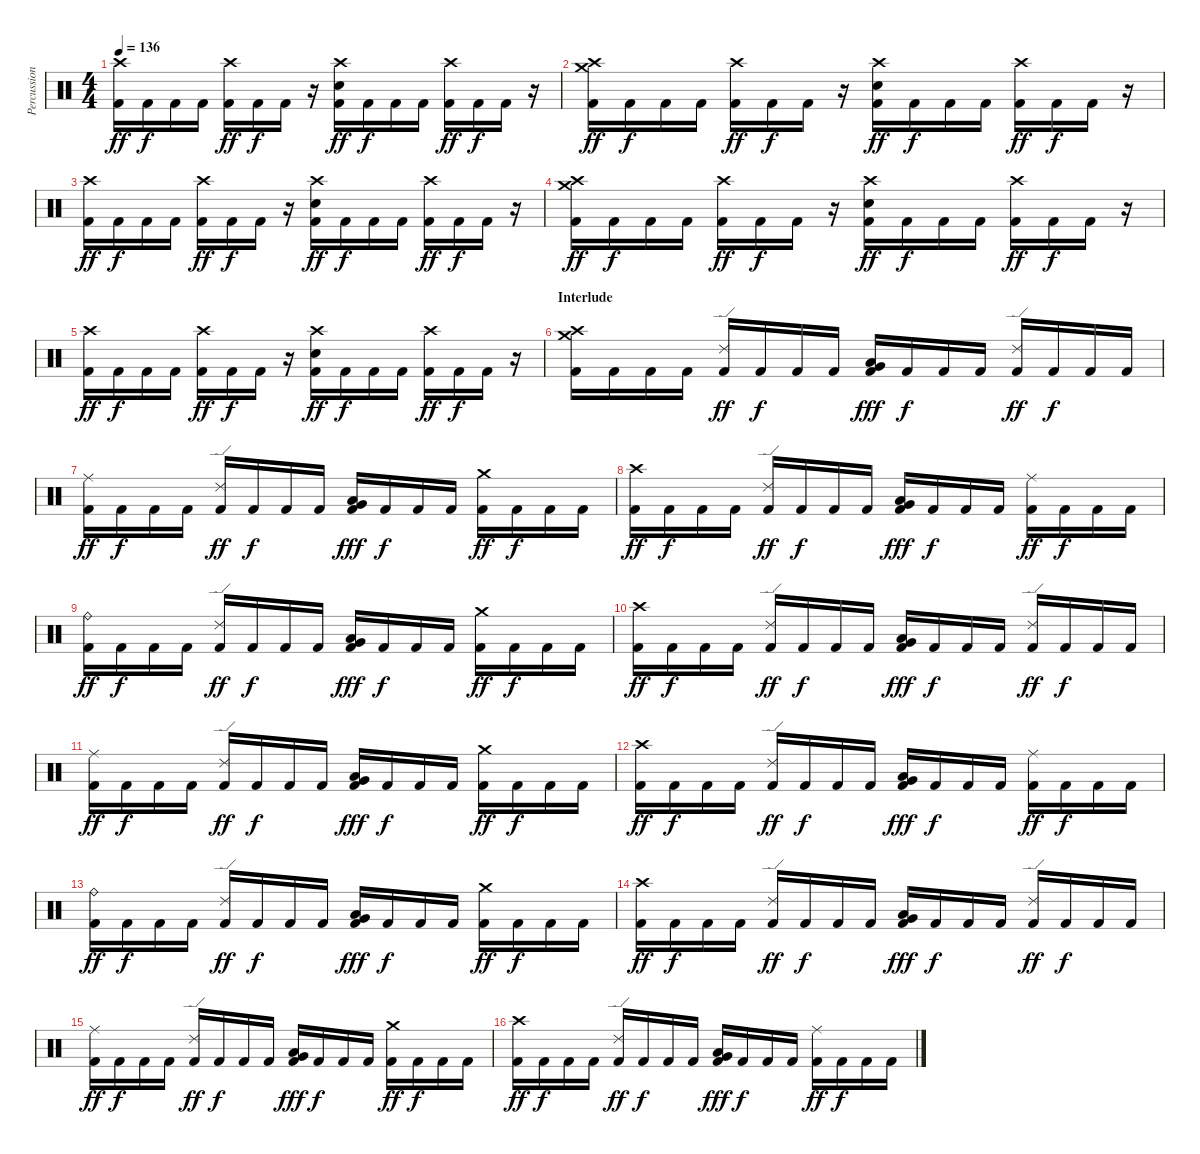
\track ("Percussions" "Percussion") {instrument percussion}
\staff {score}
\articulation defaults
\ts (4 4)
\tempo 136
\clef neutral
\ks c
("Crash high (hit)" "Kick (hit) 2").16{dy ff} "Kick (hit) 2".16{dy f} "Kick (hit) 2".16 "Kick (hit) 2".16 ("Crash high (hit)" "Kick (hit) 2").16{dy ff} "Kick (hit) 2".16{dy f} "Kick (hit) 2".16 r.16 ("Crash high (hit)" "Electric Snare (hit)" "Kick (hit) 2").16{dy ff} "Kick (hit) 2".16{dy f} "Kick (hit) 2".16 "Kick (hit) 2".16 ("Crash high (hit)" "Kick (hit) 2").16{dy ff} "Kick (hit) 2".16{dy f} "Kick (hit) 2".16 r.16 |
("Crash medium (hit)" "Crash high (hit)" "Kick (hit) 2").16{dy ff} "Kick (hit) 2".16{dy f} "Kick (hit) 2".16 "Kick (hit) 2".16 ("Crash high (hit)" "Kick (hit) 2").16{dy ff} "Kick (hit) 2".16{dy f} "Kick (hit) 2".16 r.16 ("Crash high (hit)" "Electric Snare (hit)" "Kick (hit) 2").16{dy ff} "Kick (hit) 2".16{dy f} "Kick (hit) 2".16 "Kick (hit) 2".16 ("Crash high (hit)" "Kick (hit) 2").16{dy ff} "Kick (hit) 2".16{dy f} "Kick (hit) 2".16 r.16 |
("Crash high (hit)" "Kick (hit) 2").16{dy ff} "Kick (hit) 2".16{dy f} "Kick (hit) 2".16 "Kick (hit) 2".16 ("Crash high (hit)" "Kick (hit) 2").16{dy ff} "Kick (hit) 2".16{dy f} "Kick (hit) 2".16 r.16 ("Crash high (hit)" "Electric Snare (hit)" "Kick (hit) 2").16{dy ff} "Kick (hit) 2".16{dy f} "Kick (hit) 2".16 "Kick (hit) 2".16 ("Crash high (hit)" "Kick (hit) 2").16{dy ff} "Kick (hit) 2".16{dy f} "Kick (hit) 2".16 r.16 |
("Crash medium (hit)" "Crash high (hit)" "Kick (hit) 2").16{dy ff} "Kick (hit) 2".16{dy f} "Kick (hit) 2".16 "Kick (hit) 2".16 ("Crash high (hit)" "Kick (hit) 2").16{dy ff} "Kick (hit) 2".16{dy f} "Kick (hit) 2".16 r.16 ("Crash high (hit)" "Electric Snare (hit)" "Kick (hit) 2").16{dy ff} "Kick (hit) 2".16{dy f} "Kick (hit) 2".16 "Kick (hit) 2".16 ("Crash high (hit)" "Kick (hit) 2").16{dy ff} "Kick (hit) 2".16{dy f} "Kick (hit) 2".16 r.16 |
("Crash high (hit)" "Kick (hit) 2").16{dy ff} "Kick (hit) 2".16{dy f} "Kick (hit) 2".16 "Kick (hit) 2".16 ("Crash high (hit)" "Kick (hit) 2").16{dy ff} "Kick (hit) 2".16{dy f} "Kick (hit) 2".16 r.16 ("Crash high (hit)" "Electric Snare (hit)" "Kick (hit) 2").16{dy ff} "Kick (hit) 2".16{dy f} "Kick (hit) 2".16 "Kick (hit) 2".16 ("Crash high (hit)" "Kick (hit) 2").16{dy ff} "Kick (hit) 2".16{dy f} "Kick (hit) 2".16 r.16 |
\section ("" "Interlude")
("Crash high (hit)" "Crash medium (hit)" "Kick (hit) 2").16 "Kick (hit) 2".16 "Kick (hit) 2".16 "Kick (hit) 2".16 ("Ride (edge) 2" "Kick (hit) 2").16{dy ff} "Kick (hit) 2".16{dy f} "Kick (hit) 2".16 "Kick (hit) 2".16 ("Low Tom (hit)" "Very Low Tom (hit)" "Kick (hit) 2").16{dy fff} "Kick (hit) 2".16{dy f} "Kick (hit) 2".16 "Kick (hit) 2".16 ("Ride (edge) 2" "Kick (hit) 2").16{dy ff} "Kick (hit) 2".16{dy f} "Kick (hit) 2".16 "Kick (hit) 2".16 |
("Ride (middle)" "Kick (hit) 2").16{dy ff} "Kick (hit) 2".16{dy f} "Kick (hit) 2".16 "Kick (hit) 2".16 ("Ride (edge) 2" "Kick (hit) 2").16{dy ff} "Kick (hit) 2".16{dy f} "Kick (hit) 2".16 "Kick (hit) 2".16 ("Low Tom (hit)" "Very Low Tom (hit)" "Kick (hit) 2").16{dy fff} "Kick (hit) 2".16{dy f} "Kick (hit) 2".16 "Kick (hit) 2".16 ("Crash medium (hit)" "Kick (hit) 2").16{dy ff} "Kick (hit) 2".16{dy f} "Kick (hit) 2".16 "Kick (hit) 2".16 |
("Crash high (hit)" "Kick (hit) 2").16{dy ff} "Kick (hit) 2".16{dy f} "Kick (hit) 2".16 "Kick (hit) 2".16 ("Ride (edge) 2" "Kick (hit) 2").16{dy ff} "Kick (hit) 2".16{dy f} "Kick (hit) 2".16 "Kick (hit) 2".16 ("Low Tom (hit)" "Very Low Tom (hit)" "Kick (hit) 2").16{dy fff} "Kick (hit) 2".16{dy f} "Kick (hit) 2".16 "Kick (hit) 2".16 ("Ride (middle)" "Kick (hit) 2").16{dy ff} "Kick (hit) 2".16{dy f} "Kick (hit) 2".16 "Kick (hit) 2".16 |
("Ride (bell)" "Kick (hit) 2").16{dy ff} "Kick (hit) 2".16{dy f} "Kick (hit) 2".16 "Kick (hit) 2".16 ("Ride (edge) 2" "Kick (hit) 2").16{dy ff} "Kick (hit) 2".16{dy f} "Kick (hit) 2".16 "Kick (hit) 2".16 ("Low Tom (hit)" "Very Low Tom (hit)" "Kick (hit) 2").16{dy fff} "Kick (hit) 2".16{dy f} "Kick (hit) 2".16 "Kick (hit) 2".16 ("Crash medium (hit)" "Kick (hit) 2").16{dy ff} "Kick (hit) 2".16{dy f} "Kick (hit) 2".16 "Kick (hit) 2".16 |
("Crash high (hit)" "Kick (hit) 2").16{dy ff} "Kick (hit) 2".16{dy f} "Kick (hit) 2".16 "Kick (hit) 2".16 ("Ride (edge) 2" "Kick (hit) 2").16{dy ff} "Kick (hit) 2".16{dy f} "Kick (hit) 2".16 "Kick (hit) 2".16 ("Low Tom (hit)" "Very Low Tom (hit)" "Kick (hit) 2").16{dy fff} "Kick (hit) 2".16{dy f} "Kick (hit) 2".16 "Kick (hit) 2".16 ("Ride (edge) 2" "Kick (hit) 2").16{dy ff} "Kick (hit) 2".16{dy f} "Kick (hit) 2".16 "Kick (hit) 2".16 |
("Ride (middle)" "Kick (hit) 2").16{dy ff} "Kick (hit) 2".16{dy f} "Kick (hit) 2".16 "Kick (hit) 2".16 ("Ride (edge) 2" "Kick (hit) 2").16{dy ff} "Kick (hit) 2".16{dy f} "Kick (hit) 2".16 "Kick (hit) 2".16 ("Low Tom (hit)" "Very Low Tom (hit)" "Kick (hit) 2").16{dy fff} "Kick (hit) 2".16{dy f} "Kick (hit) 2".16 "Kick (hit) 2".16 ("Crash medium (hit)" "Kick (hit) 2").16{dy ff} "Kick (hit) 2".16{dy f} "Kick (hit) 2".16 "Kick (hit) 2".16 |
("Crash high (hit)" "Kick (hit) 2").16{dy ff} "Kick (hit) 2".16{dy f} "Kick (hit) 2".16 "Kick (hit) 2".16 ("Ride (edge) 2" "Kick (hit) 2").16{dy ff} "Kick (hit) 2".16{dy f} "Kick (hit) 2".16 "Kick (hit) 2".16 ("Low Tom (hit)" "Very Low Tom (hit)" "Kick (hit) 2").16{dy fff} "Kick (hit) 2".16{dy f} "Kick (hit) 2".16 "Kick (hit) 2".16 ("Ride (middle)" "Kick (hit) 2").16{dy ff} "Kick (hit) 2".16{dy f} "Kick (hit) 2".16 "Kick (hit) 2".16 |
("Ride (bell)" "Kick (hit) 2").16{dy ff} "Kick (hit) 2".16{dy f} "Kick (hit) 2".16 "Kick (hit) 2".16 ("Ride (edge) 2" "Kick (hit) 2").16{dy ff} "Kick (hit) 2".16{dy f} "Kick (hit) 2".16 "Kick (hit) 2".16 ("Low Tom (hit)" "Very Low Tom (hit)" "Kick (hit) 2").16{dy fff} "Kick (hit) 2".16{dy f} "Kick (hit) 2".16 "Kick (hit) 2".16 ("Crash medium (hit)" "Kick (hit) 2").16{dy ff} "Kick (hit) 2".16{dy f} "Kick (hit) 2".16 "Kick (hit) 2".16 |
("Crash high (hit)" "Kick (hit) 2").16{dy ff} "Kick (hit) 2".16{dy f} "Kick (hit) 2".16 "Kick (hit) 2".16 ("Ride (edge) 2" "Kick (hit) 2").16{dy ff} "Kick (hit) 2".16{dy f} "Kick (hit) 2".16 "Kick (hit) 2".16 ("Low Tom (hit)" "Very Low Tom (hit)" "Kick (hit) 2").16{dy fff} "Kick (hit) 2".16{dy f} "Kick (hit) 2".16 "Kick (hit) 2".16 ("Ride (edge) 2" "Kick (hit) 2").16{dy ff} "Kick (hit) 2".16{dy f} "Kick (hit) 2".16 "Kick (hit) 2".16 |
("Ride (middle)" "Kick (hit) 2").16{dy ff} "Kick (hit) 2".16{dy f} "Kick (hit) 2".16 "Kick (hit) 2".16 ("Ride (edge) 2" "Kick (hit) 2").16{dy ff} "Kick (hit) 2".16{dy f} "Kick (hit) 2".16 "Kick (hit) 2".16 ("Low Tom (hit)" "Very Low Tom (hit)" "Kick (hit) 2").16{dy fff} "Kick (hit) 2".16{dy f} "Kick (hit) 2".16 "Kick (hit) 2".16 ("Crash medium (hit)" "Kick (hit) 2").16{dy ff} "Kick (hit) 2".16{dy f} "Kick (hit) 2".16 "Kick (hit) 2".16 |
("Crash high (hit)" "Kick (hit) 2").16{dy ff} "Kick (hit) 2".16{dy f} "Kick (hit) 2".16 "Kick (hit) 2".16 ("Ride (edge) 2" "Kick (hit) 2").16{dy ff} "Kick (hit) 2".16{dy f} "Kick (hit) 2".16 "Kick (hit) 2".16 ("Low Tom (hit)" "Very Low Tom (hit)" "Kick (hit) 2").16{dy fff} "Kick (hit) 2".16{dy f} "Kick (hit) 2".16 "Kick (hit) 2".16 ("Ride (middle)" "Kick (hit) 2").16{dy ff} "Kick (hit) 2".16{dy f} "Kick (hit) 2".16 "Kick (hit) 2".16
